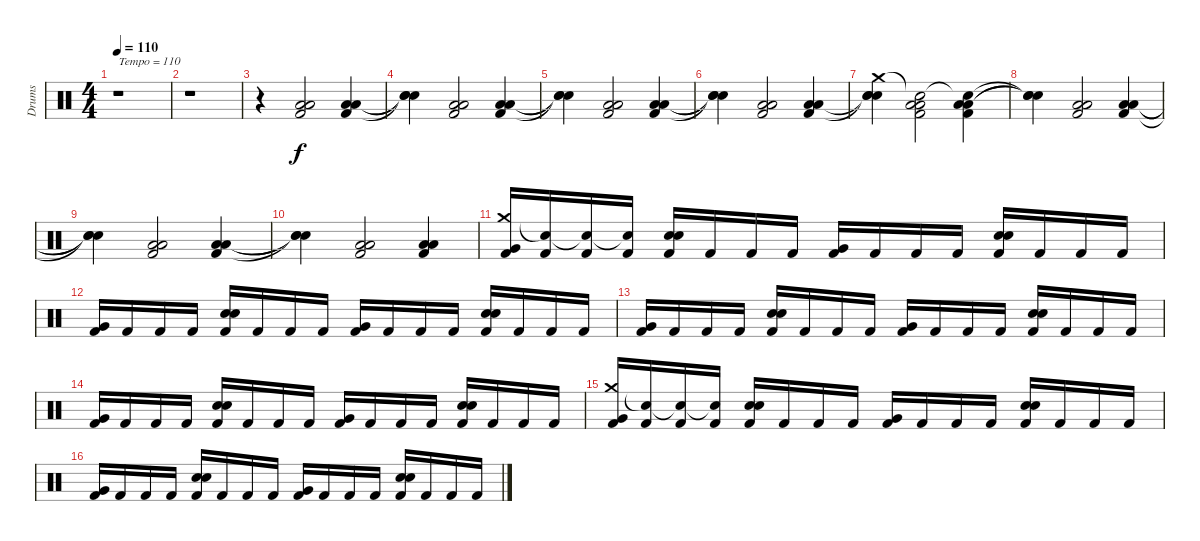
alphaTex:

\track ("Drums" "Drums") {instrument percussion}
\staff {score}
\articulation defaults
\ts (4 4)
\tempo 110
\clef neutral
\ks c
r.1{txt "Tempo = 110" dy f} |
r.1 |
r.4 ("Low Floor Tom (hit)" "Low Floor Tom (hit)" "Kick (hit) 2").2 ("Low Floor Tom (hit)" "Low Floor Tom (hit)" "Kick (hit) 2").4 |
("Snare (hit)"{t} "Snare (hit)"{t} "Snare (hit)"{t}).4 ("Low Floor Tom (hit)" "Low Floor Tom (hit)" "Kick (hit) 2").2 ("Low Floor Tom (hit)" "Low Floor Tom (hit)" "Kick (hit) 2").4 |
("Snare (hit)"{t} "Snare (hit)"{t} "Snare (hit)"{t}).4 ("Low Floor Tom (hit)" "Low Floor Tom (hit)" "Kick (hit) 2").2 ("Low Floor Tom (hit)" "Low Floor Tom (hit)" "Kick (hit) 2").4 |
("Snare (hit)"{t} "Snare (hit)"{t} "Snare (hit)"{t}).4 ("Low Floor Tom (hit)" "Low Floor Tom (hit)" "Kick (hit) 2").2 ("Low Floor Tom (hit)" "Low Floor Tom (hit)" "Kick (hit) 2").4 |
("Crash medium (hit)" "Snare (hit)"{t} "Snare (hit)"{t} "Snare (hit)").4 ("Snare (hit)"{t} "Low Floor Tom (hit)" "Low Floor Tom (hit)" "Kick (hit) 2").2 ("Snare (hit)"{t} "Low Floor Tom (hit)" "Low Floor Tom (hit)" "Kick (hit) 2").4 |
("Snare (hit)"{t} "Snare (hit)"{t} "Snare (hit)"{t}).4 ("Low Floor Tom (hit)" "Low Floor Tom (hit)" "Kick (hit) 2").2 ("Low Floor Tom (hit)" "Low Floor Tom (hit)" "Kick (hit) 2").4 |
("Snare (hit)"{t} "Snare (hit)"{t} "Snare (hit)"{t}).4 ("Low Floor Tom (hit)" "Low Floor Tom (hit)" "Kick (hit) 2").2 ("Low Floor Tom (hit)" "Low Floor Tom (hit)" "Kick (hit) 2").4 |
("Snare (hit)"{t} "Snare (hit)"{t} "Snare (hit)"{t}).4 ("Low Floor Tom (hit)" "Low Floor Tom (hit)" "Kick (hit) 2").2 ("Low Floor Tom (hit)" "Low Floor Tom (hit)" "Kick (hit) 2").4 |
("Crash medium (hit)" "Very Low Tom (hit)" "Kick (hit) 2").16 ("Snare (hit)"{t} "Kick (hit) 2").16 ("Snare (hit)"{t} "Kick (hit) 2").16 ("Snare (hit)"{t} "Kick (hit) 2").16 ("Electric Snare (hit)" "Electric Snare (hit)" "Kick (hit) 2").16 "Kick (hit) 2".16 "Kick (hit) 2".16 "Kick (hit) 2".16 ("Very Low Tom (hit)" "Kick (hit) 2").16 "Kick (hit) 2".16 "Kick (hit) 2".16 "Kick (hit) 2".16 ("Electric Snare (hit)" "Electric Snare (hit)" "Kick (hit) 2").16 "Kick (hit) 2".16 "Kick (hit) 2".16 "Kick (hit) 2".16 |
("Very Low Tom (hit)" "Kick (hit) 2").16 "Kick (hit) 2".16 "Kick (hit) 2".16 "Kick (hit) 2".16 ("Electric Snare (hit)" "Electric Snare (hit)" "Kick (hit) 2").16 "Kick (hit) 2".16 "Kick (hit) 2".16 "Kick (hit) 2".16 ("Very Low Tom (hit)" "Kick (hit) 2").16 "Kick (hit) 2".16 "Kick (hit) 2".16 "Kick (hit) 2".16 ("Electric Snare (hit)" "Electric Snare (hit)" "Kick (hit) 2").16 "Kick (hit) 2".16 "Kick (hit) 2".16 "Kick (hit) 2".16 |
("Very Low Tom (hit)" "Kick (hit) 2").16 "Kick (hit) 2".16 "Kick (hit) 2".16 "Kick (hit) 2".16 ("Electric Snare (hit)" "Electric Snare (hit)" "Kick (hit) 2").16 "Kick (hit) 2".16 "Kick (hit) 2".16 "Kick (hit) 2".16 ("Very Low Tom (hit)" "Kick (hit) 2").16 "Kick (hit) 2".16 "Kick (hit) 2".16 "Kick (hit) 2".16 ("Electric Snare (hit)" "Electric Snare (hit)" "Kick (hit) 2").16 "Kick (hit) 2".16 "Kick (hit) 2".16 "Kick (hit) 2".16 |
("Very Low Tom (hit)" "Kick (hit) 2").16 "Kick (hit) 2".16 "Kick (hit) 2".16 "Kick (hit) 2".16 ("Electric Snare (hit)" "Electric Snare (hit)" "Kick (hit) 2").16 "Kick (hit) 2".16 "Kick (hit) 2".16 "Kick (hit) 2".16 ("Very Low Tom (hit)" "Kick (hit) 2").16 "Kick (hit) 2".16 "Kick (hit) 2".16 "Kick (hit) 2".16 ("Electric Snare (hit)" "Electric Snare (hit)" "Kick (hit) 2").16 "Kick (hit) 2".16 "Kick (hit) 2".16 "Kick (hit) 2".16 |
("Crash medium (hit)" "Very Low Tom (hit)" "Kick (hit) 2").16 ("Snare (hit)"{t} "Kick (hit) 2").16 ("Snare (hit)"{t} "Kick (hit) 2").16 ("Snare (hit)"{t} "Kick (hit) 2").16 ("Electric Snare (hit)" "Electric Snare (hit)" "Kick (hit) 2").16 "Kick (hit) 2".16 "Kick (hit) 2".16 "Kick (hit) 2".16 ("Very Low Tom (hit)" "Kick (hit) 2").16 "Kick (hit) 2".16 "Kick (hit) 2".16 "Kick (hit) 2".16 ("Electric Snare (hit)" "Electric Snare (hit)" "Kick (hit) 2").16 "Kick (hit) 2".16 "Kick (hit) 2".16 "Kick (hit) 2".16 |
("Very Low Tom (hit)" "Kick (hit) 2").16 "Kick (hit) 2".16 "Kick (hit) 2".16 "Kick (hit) 2".16 ("Electric Snare (hit)" "Electric Snare (hit)" "Kick (hit) 2").16 "Kick (hit) 2".16 "Kick (hit) 2".16 "Kick (hit) 2".16 ("Very Low Tom (hit)" "Kick (hit) 2").16 "Kick (hit) 2".16 "Kick (hit) 2".16 "Kick (hit) 2".16 ("Electric Snare (hit)" "Electric Snare (hit)" "Kick (hit) 2").16 "Kick (hit) 2".16 "Kick (hit) 2".16 "Kick (hit) 2".16
